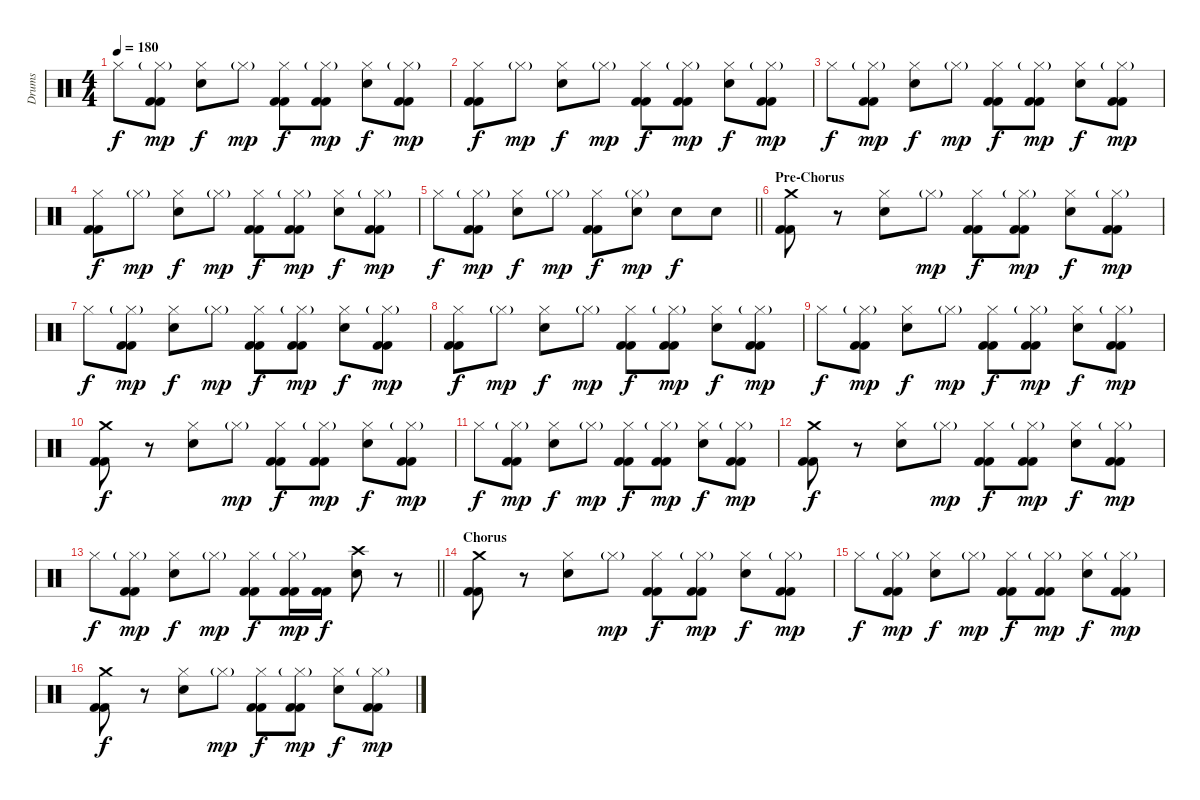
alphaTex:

\track ("Drums" "Drums") {instrument percussion}
\staff {score}
\articulation defaults
\ts (4 4)
\tempo 180
\clef neutral
\ks c "Hi-Hat (closed)".8{dy f}
("Hi-Hat (closed)"{g} "Kick (hit) 2" "Kick (hit) 2").8{dy mp} ("Hi-Hat (closed)" "Snare (hit) 2").8{dy f} "Hi-Hat (closed)"{g}.8{dy mp} ("Hi-Hat (closed)" "Kick (hit) 2" "Kick (hit) 2").8{dy f} ("Hi-Hat (closed)"{g} "Kick (hit) 2" "Kick (hit) 2").8{dy mp} ("Hi-Hat (closed)" "Snare (hit) 2").8{dy f} ("Hi-Hat (closed)"{g} "Kick (hit) 2" "Kick (hit) 2").8{dy mp} |
("Hi-Hat (closed)" "Kick (hit) 2" "Kick (hit) 2").8{dy f} "Hi-Hat (closed)"{g}.8{dy mp} ("Hi-Hat (closed)" "Snare (hit) 2").8{dy f} "Hi-Hat (closed)"{g}.8{dy mp} ("Hi-Hat (closed)" "Kick (hit) 2" "Kick (hit) 2").8{dy f} ("Hi-Hat (closed)"{g} "Kick (hit) 2" "Kick (hit) 2").8{dy mp} ("Hi-Hat (closed)" "Snare (hit) 2").8{dy f} ("Hi-Hat (closed)"{g} "Kick (hit) 2" "Kick (hit) 2").8{dy mp} |
"Hi-Hat (closed)".8{dy f} ("Hi-Hat (closed)"{g} "Kick (hit) 2" "Kick (hit) 2").8{dy mp} ("Hi-Hat (closed)" "Snare (hit) 2").8{dy f} "Hi-Hat (closed)"{g}.8{dy mp} ("Hi-Hat (closed)" "Kick (hit) 2" "Kick (hit) 2").8{dy f} ("Hi-Hat (closed)"{g} "Kick (hit) 2" "Kick (hit) 2").8{dy mp} ("Hi-Hat (closed)" "Snare (hit) 2").8{dy f} ("Hi-Hat (closed)"{g} "Kick (hit) 2" "Kick (hit) 2").8{dy mp} |
("Hi-Hat (closed)" "Kick (hit) 2" "Kick (hit) 2").8{dy f} "Hi-Hat (closed)"{g}.8{dy mp} ("Hi-Hat (closed)" "Snare (hit) 2").8{dy f} "Hi-Hat (closed)"{g}.8{dy mp} ("Hi-Hat (closed)" "Kick (hit) 2" "Kick (hit) 2").8{dy f} ("Hi-Hat (closed)"{g} "Kick (hit) 2" "Kick (hit) 2").8{dy mp} ("Hi-Hat (closed)" "Snare (hit) 2").8{dy f} ("Hi-Hat (closed)"{g} "Kick (hit) 2" "Kick (hit) 2").8{dy mp} |
\barLineRight lightlight "Hi-Hat (closed)".8{dy f}
("Hi-Hat (closed)"{g} "Kick (hit) 2" "Kick (hit) 2").8{dy mp} ("Hi-Hat (closed)" "Snare (hit) 2").8{dy f} "Hi-Hat (closed)"{g}.8{dy mp} ("Hi-Hat (closed)" "Kick (hit) 2" "Kick (hit) 2").8{dy f} ("Hi-Hat (closed)"{g} "Snare (hit) 2").8{dy mp} "Snare (hit) 2".8{dy f} "Snare (hit) 2".8 |
\section ("" "Pre-Chorus")
("Crash medium (hit)" "Kick (hit) 2" "Kick (hit) 2").8 r.8 ("Hi-Hat (closed)" "Snare (hit) 2").8 "Hi-Hat (closed)"{g}.8{dy mp} ("Hi-Hat (closed)" "Kick (hit) 2" "Kick (hit) 2").8{dy f} ("Hi-Hat (closed)"{g} "Kick (hit) 2" "Kick (hit) 2").8{dy mp} ("Hi-Hat (closed)" "Snare (hit) 2").8{dy f} ("Hi-Hat (closed)"{g} "Kick (hit) 2" "Kick (hit) 2").8{dy mp} |
"Hi-Hat (closed)".8{dy f} ("Hi-Hat (closed)"{g} "Kick (hit) 2" "Kick (hit) 2").8{dy mp} ("Hi-Hat (closed)" "Snare (hit) 2").8{dy f} "Hi-Hat (closed)"{g}.8{dy mp} ("Hi-Hat (closed)" "Kick (hit) 2" "Kick (hit) 2").8{dy f} ("Hi-Hat (closed)"{g} "Kick (hit) 2" "Kick (hit) 2").8{dy mp} ("Hi-Hat (closed)" "Snare (hit) 2").8{dy f} ("Hi-Hat (closed)"{g} "Kick (hit) 2" "Kick (hit) 2").8{dy mp} |
("Hi-Hat (closed)" "Kick (hit) 2" "Kick (hit) 2").8{dy f} "Hi-Hat (closed)"{g}.8{dy mp} ("Hi-Hat (closed)" "Snare (hit) 2").8{dy f} "Hi-Hat (closed)"{g}.8{dy mp} ("Hi-Hat (closed)" "Kick (hit) 2" "Kick (hit) 2").8{dy f} ("Hi-Hat (closed)"{g} "Kick (hit) 2" "Kick (hit) 2").8{dy mp} ("Hi-Hat (closed)" "Snare (hit) 2").8{dy f} ("Hi-Hat (closed)"{g} "Kick (hit) 2" "Kick (hit) 2").8{dy mp} |
"Hi-Hat (closed)".8{dy f} ("Hi-Hat (closed)"{g} "Kick (hit) 2" "Kick (hit) 2").8{dy mp} ("Hi-Hat (closed)" "Snare (hit) 2").8{dy f} "Hi-Hat (closed)"{g}.8{dy mp} ("Hi-Hat (closed)" "Kick (hit) 2" "Kick (hit) 2").8{dy f} ("Hi-Hat (closed)"{g} "Kick (hit) 2" "Kick (hit) 2").8{dy mp} ("Hi-Hat (closed)" "Snare (hit) 2").8{dy f} ("Hi-Hat (closed)"{g} "Kick (hit) 2" "Kick (hit) 2").8{dy mp} |
("Crash medium (hit)" "Kick (hit) 2" "Kick (hit) 2").8{dy f} r.8 ("Hi-Hat (closed)" "Snare (hit) 2").8 "Hi-Hat (closed)"{g}.8{dy mp} ("Hi-Hat (closed)" "Kick (hit) 2" "Kick (hit) 2").8{dy f} ("Hi-Hat (closed)"{g} "Kick (hit) 2" "Kick (hit) 2").8{dy mp} ("Hi-Hat (closed)" "Snare (hit) 2").8{dy f} ("Hi-Hat (closed)"{g} "Kick (hit) 2" "Kick (hit) 2").8{dy mp} |
"Hi-Hat (closed)".8{dy f} ("Hi-Hat (closed)"{g} "Kick (hit) 2" "Kick (hit) 2").8{dy mp} ("Hi-Hat (closed)" "Snare (hit) 2").8{dy f} "Hi-Hat (closed)"{g}.8{dy mp} ("Hi-Hat (closed)" "Kick (hit) 2" "Kick (hit) 2").8{dy f} ("Hi-Hat (closed)"{g} "Kick (hit) 2" "Kick (hit) 2").8{dy mp} ("Hi-Hat (closed)" "Snare (hit) 2").8{dy f} ("Hi-Hat (closed)"{g} "Kick (hit) 2" "Kick (hit) 2").8{dy mp} |
("Crash medium (hit)" "Kick (hit) 2" "Kick (hit) 2").8{dy f} r.8 ("Hi-Hat (closed)" "Snare (hit) 2").8 "Hi-Hat (closed)"{g}.8{dy mp} ("Hi-Hat (closed)" "Kick (hit) 2" "Kick (hit) 2").8{dy f} ("Hi-Hat (closed)"{g} "Kick (hit) 2" "Kick (hit) 2").8{dy mp} ("Hi-Hat (closed)" "Snare (hit) 2").8{dy f} ("Hi-Hat (closed)"{g} "Kick (hit) 2" "Kick (hit) 2").8{dy mp} |
\barLineRight lightlight "Hi-Hat (closed)".8{dy f}
("Hi-Hat (closed)"{g} "Kick (hit) 2" "Kick (hit) 2").8{dy mp} ("Hi-Hat (closed)" "Snare (hit) 2").8{dy f} "Hi-Hat (closed)"{g}.8{dy mp} ("Hi-Hat (closed)" "Kick (hit) 2" "Kick (hit) 2").8{dy f} ("Hi-Hat (closed)"{g} "Kick (hit) 2" "Kick (hit) 2").16{dy mp} ("Kick (hit) 2" "Kick (hit) 2").16{dy f} ("Crash high (hit)" "Snare (hit) 2").8 r.8 |
\section ("" "Chorus")
("Crash medium (hit)" "Kick (hit) 2" "Kick (hit) 2").8 r.8 ("Hi-Hat (closed)" "Snare (hit) 2").8 "Hi-Hat (closed)"{g}.8{dy mp} ("Hi-Hat (closed)" "Kick (hit) 2" "Kick (hit) 2").8{dy f} ("Hi-Hat (closed)"{g} "Kick (hit) 2" "Kick (hit) 2").8{dy mp} ("Hi-Hat (closed)" "Snare (hit) 2").8{dy f} ("Hi-Hat (closed)"{g} "Kick (hit) 2" "Kick (hit) 2").8{dy mp} |
"Hi-Hat (closed)".8{dy f} ("Hi-Hat (closed)"{g} "Kick (hit) 2" "Kick (hit) 2").8{dy mp} ("Hi-Hat (closed)" "Snare (hit) 2").8{dy f} "Hi-Hat (closed)"{g}.8{dy mp} ("Hi-Hat (closed)" "Kick (hit) 2" "Kick (hit) 2").8{dy f} ("Hi-Hat (closed)"{g} "Kick (hit) 2" "Kick (hit) 2").8{dy mp} ("Hi-Hat (closed)" "Snare (hit) 2").8{dy f} ("Hi-Hat (closed)"{g} "Kick (hit) 2" "Kick (hit) 2").8{dy mp} |
("Crash medium (hit)" "Kick (hit) 2" "Kick (hit) 2").8{dy f} r.8 ("Hi-Hat (closed)" "Snare (hit) 2").8 "Hi-Hat (closed)"{g}.8{dy mp} ("Hi-Hat (closed)" "Kick (hit) 2" "Kick (hit) 2").8{dy f} ("Hi-Hat (closed)"{g} "Kick (hit) 2" "Kick (hit) 2").8{dy mp} ("Hi-Hat (closed)" "Snare (hit) 2").8{dy f} ("Hi-Hat (closed)"{g} "Kick (hit) 2" "Kick (hit) 2").8{dy mp}
